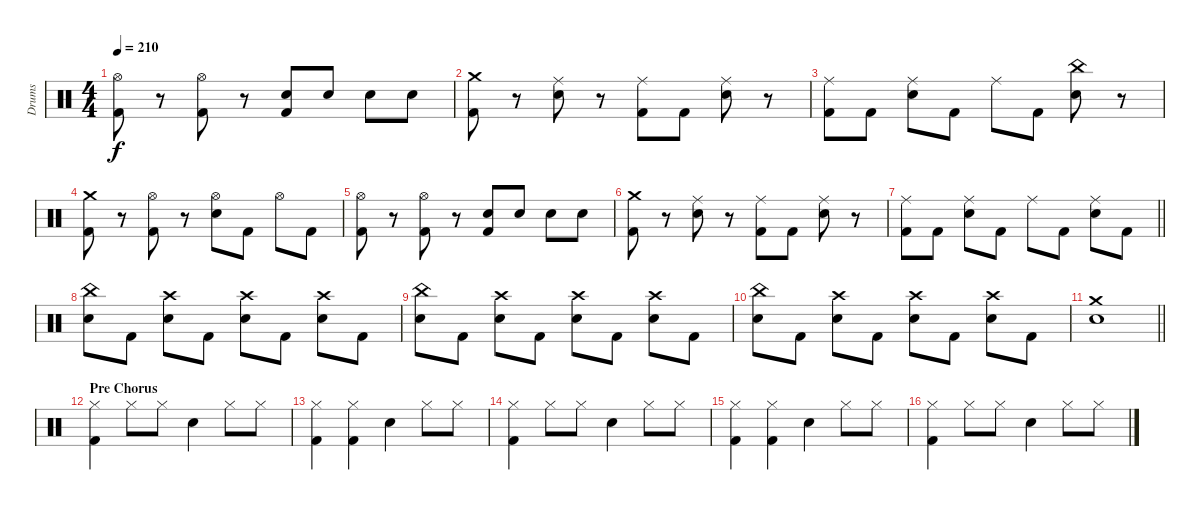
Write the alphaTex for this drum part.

\track ("Drums" "Drums") {instrument percussion}
\staff {score}
\articulation defaults
\ts (4 4)
\tempo 210
\clef neutral
\ks c
("Hi-Hat (open)" "Kick (hit) 2").8{dy f} r.8 ("Hi-Hat (open)" "Kick (hit) 2").8 r.8 ("Electric Snare (hit)" "Kick (hit) 2").8 "Electric Snare (hit)".8 "Electric Snare (hit)".8 "Electric Snare (hit)".8 |
("Crash medium (hit)" "Kick (hit) 2").8 r.8 ("Ride (middle)" "Electric Snare (hit)").8 r.8 ("Ride (middle)" "Kick (hit) 2").8 "Kick (hit) 2".8 ("Ride (middle)" "Electric Snare (hit)").8 r.8 |
("Ride (middle)" "Kick (hit) 2").8 "Kick (hit) 2".8 ("Ride (middle)" "Electric Snare (hit)").8 "Kick (hit) 2".8 "Ride (middle)".8 "Kick (hit) 2".8 ("China (hit)" "Electric Snare (hit)").8 r.8 |
("Crash medium (hit)" "Kick (hit) 2").8 r.8 ("Hi-Hat (open)" "Kick (hit) 2").8 r.8 ("Hi-Hat (open)" "Electric Snare (hit)").8 "Kick (hit) 2".8 "Hi-Hat (open)".8 "Kick (hit) 2".8 |
("Hi-Hat (open)" "Kick (hit) 2").8 r.8 ("Hi-Hat (open)" "Kick (hit) 2").8 r.8 ("Electric Snare (hit)" "Kick (hit) 2").8 "Electric Snare (hit)".8 "Electric Snare (hit)".8 "Electric Snare (hit)".8 |
("Crash medium (hit)" "Kick (hit) 2").8 r.8 ("Ride (middle)" "Electric Snare (hit)").8 r.8 ("Ride (middle)" "Kick (hit) 2").8 "Kick (hit) 2".8 ("Ride (middle)" "Electric Snare (hit)").8 r.8 |
\barLineRight lightlight
("Ride (middle)" "Kick (hit) 2").8 "Kick (hit) 2".8 ("Ride (middle)" "Electric Snare (hit)").8 "Kick (hit) 2".8 "Ride (middle)".8 "Kick (hit) 2".8 ("Ride (middle)" "Electric Snare (hit)").8 "Kick (hit) 2".8 |
\section ("" "")
("China (hit)" "Electric Snare (hit)").8 "Kick (hit) 2".8 ("Crash high (hit)" "Electric Snare (hit)").8 "Kick (hit) 2".8 ("Crash high (hit)" "Electric Snare (hit)").8 "Kick (hit) 2".8 ("Crash high (hit)" "Electric Snare (hit)").8 "Kick (hit) 2".8 |
("China (hit)" "Electric Snare (hit)").8 "Kick (hit) 2".8 ("Crash high (hit)" "Electric Snare (hit)").8 "Kick (hit) 2".8 ("Crash high (hit)" "Electric Snare (hit)").8 "Kick (hit) 2".8 ("Crash high (hit)" "Electric Snare (hit)").8 "Kick (hit) 2".8 |
("China (hit)" "Electric Snare (hit)").8 "Kick (hit) 2".8 ("Crash high (hit)" "Electric Snare (hit)").8 "Kick (hit) 2".8 ("Crash high (hit)" "Electric Snare (hit)").8 "Kick (hit) 2".8 ("Crash high (hit)" "Electric Snare (hit)").8 "Kick (hit) 2".8 |
\barLineRight lightlight
("Crash medium (hit)" "Electric Snare (hit)").1 |
\section ("" "Pre Chorus")
("Hi-Hat (closed)" "Kick (hit) 2").4 "Hi-Hat (closed)".8 "Hi-Hat (closed)".8 "Electric Snare (hit)".4 "Hi-Hat (closed)".8 "Hi-Hat (closed)".8 |
("Hi-Hat (closed)" "Kick (hit) 2").4 ("Hi-Hat (closed)" "Kick (hit) 2").4 "Electric Snare (hit)".4 "Hi-Hat (closed)".8 "Hi-Hat (closed)".8 |
("Hi-Hat (closed)" "Kick (hit) 2").4 "Hi-Hat (closed)".8 "Hi-Hat (closed)".8 "Electric Snare (hit)".4 "Hi-Hat (closed)".8 "Hi-Hat (closed)".8 |
("Hi-Hat (closed)" "Kick (hit) 2").4 ("Hi-Hat (closed)" "Kick (hit) 2").4 "Electric Snare (hit)".4 "Hi-Hat (closed)".8 "Hi-Hat (closed)".8 |
("Hi-Hat (closed)" "Kick (hit) 2").4 "Hi-Hat (closed)".8 "Hi-Hat (closed)".8 "Electric Snare (hit)".4 "Hi-Hat (closed)".8 "Hi-Hat (closed)".8
